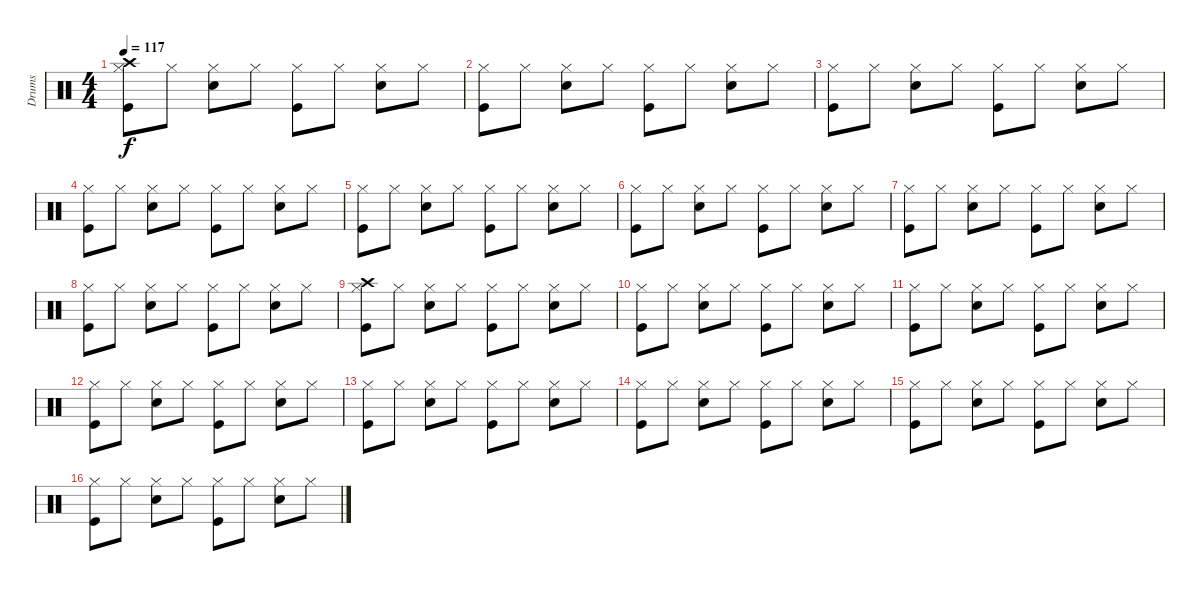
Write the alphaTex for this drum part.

\track ("Drums" "Drums") {instrument percussion}
\staff {score}
\articulation defaults
\ts (4 4)
\tempo 117
\clef neutral
\ks c
("Kick (hit)" "Hi-Hat (closed)" "Crash high (hit)").8{dy f} "Hi-Hat (closed)".8 ("Hi-Hat (closed)" "Snare (hit) 2").8 "Hi-Hat (closed)".8 ("Kick (hit)" "Hi-Hat (closed)").8 "Hi-Hat (closed)".8 ("Hi-Hat (closed)" "Snare (hit) 2").8 "Hi-Hat (closed)".8 |
("Kick (hit)" "Hi-Hat (closed)").8 "Hi-Hat (closed)".8 ("Hi-Hat (closed)" "Snare (hit) 2").8 "Hi-Hat (closed)".8 ("Kick (hit)" "Hi-Hat (closed)").8 "Hi-Hat (closed)".8 ("Hi-Hat (closed)" "Snare (hit) 2").8 "Hi-Hat (closed)".8 |
("Kick (hit)" "Hi-Hat (closed)").8 "Hi-Hat (closed)".8 ("Hi-Hat (closed)" "Snare (hit) 2").8 "Hi-Hat (closed)".8 ("Kick (hit)" "Hi-Hat (closed)").8 "Hi-Hat (closed)".8 ("Hi-Hat (closed)" "Snare (hit) 2").8 "Hi-Hat (closed)".8 |
("Kick (hit)" "Hi-Hat (closed)").8 "Hi-Hat (closed)".8 ("Hi-Hat (closed)" "Snare (hit) 2").8 "Hi-Hat (closed)".8 ("Kick (hit)" "Hi-Hat (closed)").8 "Hi-Hat (closed)".8 ("Hi-Hat (closed)" "Snare (hit) 2").8 "Hi-Hat (closed)".8 |
("Kick (hit)" "Hi-Hat (closed)").8 "Hi-Hat (closed)".8 ("Hi-Hat (closed)" "Snare (hit) 2").8 "Hi-Hat (closed)".8 ("Kick (hit)" "Hi-Hat (closed)").8 "Hi-Hat (closed)".8 ("Hi-Hat (closed)" "Snare (hit) 2").8 "Hi-Hat (closed)".8 |
("Kick (hit)" "Hi-Hat (closed)").8 "Hi-Hat (closed)".8 ("Hi-Hat (closed)" "Snare (hit) 2").8 "Hi-Hat (closed)".8 ("Kick (hit)" "Hi-Hat (closed)").8 "Hi-Hat (closed)".8 ("Hi-Hat (closed)" "Snare (hit) 2").8 "Hi-Hat (closed)".8 |
("Kick (hit)" "Hi-Hat (closed)").8 "Hi-Hat (closed)".8 ("Hi-Hat (closed)" "Snare (hit) 2").8 "Hi-Hat (closed)".8 ("Kick (hit)" "Hi-Hat (closed)").8 "Hi-Hat (closed)".8 ("Hi-Hat (closed)" "Snare (hit) 2").8 "Hi-Hat (closed)".8 |
("Kick (hit)" "Hi-Hat (closed)").8 "Hi-Hat (closed)".8 ("Hi-Hat (closed)" "Snare (hit) 2").8 "Hi-Hat (closed)".8 ("Kick (hit)" "Hi-Hat (closed)").8 "Hi-Hat (closed)".8 ("Hi-Hat (closed)" "Snare (hit) 2").8 "Hi-Hat (closed)".8 |
("Kick (hit)" "Hi-Hat (closed)" "Crash high (hit)").8 "Hi-Hat (closed)".8 ("Hi-Hat (closed)" "Snare (hit) 2").8 "Hi-Hat (closed)".8 ("Kick (hit)" "Hi-Hat (closed)").8 "Hi-Hat (closed)".8 ("Hi-Hat (closed)" "Snare (hit) 2").8 "Hi-Hat (closed)".8 |
("Kick (hit)" "Hi-Hat (closed)").8 "Hi-Hat (closed)".8 ("Hi-Hat (closed)" "Snare (hit) 2").8 "Hi-Hat (closed)".8 ("Kick (hit)" "Hi-Hat (closed)").8 "Hi-Hat (closed)".8 ("Hi-Hat (closed)" "Snare (hit) 2").8 "Hi-Hat (closed)".8 |
("Kick (hit)" "Hi-Hat (closed)").8 "Hi-Hat (closed)".8 ("Hi-Hat (closed)" "Snare (hit) 2").8 "Hi-Hat (closed)".8 ("Kick (hit)" "Hi-Hat (closed)").8 "Hi-Hat (closed)".8 ("Hi-Hat (closed)" "Snare (hit) 2").8 "Hi-Hat (closed)".8 |
("Kick (hit)" "Hi-Hat (closed)").8 "Hi-Hat (closed)".8 ("Hi-Hat (closed)" "Snare (hit) 2").8 "Hi-Hat (closed)".8 ("Kick (hit)" "Hi-Hat (closed)").8 "Hi-Hat (closed)".8 ("Hi-Hat (closed)" "Snare (hit) 2").8 "Hi-Hat (closed)".8 |
("Kick (hit)" "Hi-Hat (closed)").8 "Hi-Hat (closed)".8 ("Hi-Hat (closed)" "Snare (hit) 2").8 "Hi-Hat (closed)".8 ("Kick (hit)" "Hi-Hat (closed)").8 "Hi-Hat (closed)".8 ("Hi-Hat (closed)" "Snare (hit) 2").8 "Hi-Hat (closed)".8 |
("Kick (hit)" "Hi-Hat (closed)").8 "Hi-Hat (closed)".8 ("Hi-Hat (closed)" "Snare (hit) 2").8 "Hi-Hat (closed)".8 ("Kick (hit)" "Hi-Hat (closed)").8 "Hi-Hat (closed)".8 ("Hi-Hat (closed)" "Snare (hit) 2").8 "Hi-Hat (closed)".8 |
("Kick (hit)" "Hi-Hat (closed)").8 "Hi-Hat (closed)".8 ("Hi-Hat (closed)" "Snare (hit) 2").8 "Hi-Hat (closed)".8 ("Kick (hit)" "Hi-Hat (closed)").8 "Hi-Hat (closed)".8 ("Hi-Hat (closed)" "Snare (hit) 2").8 "Hi-Hat (closed)".8 |
("Kick (hit)" "Hi-Hat (closed)").8 "Hi-Hat (closed)".8 ("Hi-Hat (closed)" "Snare (hit) 2").8 "Hi-Hat (closed)".8 ("Kick (hit)" "Hi-Hat (closed)").8 "Hi-Hat (closed)".8 ("Hi-Hat (closed)" "Snare (hit) 2").8 "Hi-Hat (closed)".8
